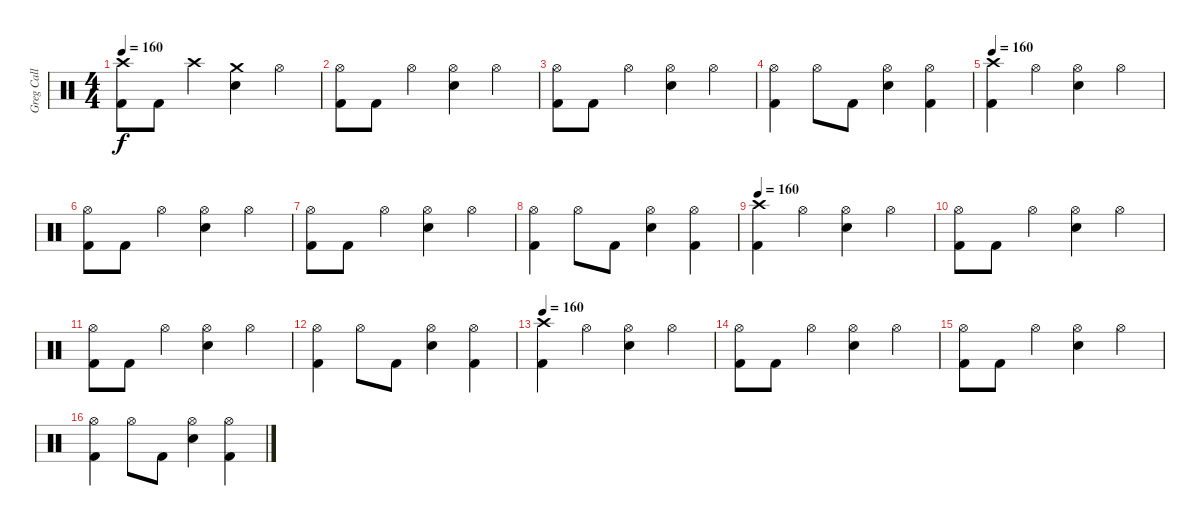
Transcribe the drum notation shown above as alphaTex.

\track ("Greg Call" "Greg Call") {instrument percussion}
\staff {score}
\articulation defaults
\ts (4 4)
\tempo 160
\clef neutral
\ks c
("Crash high (hit)" "Kick (hit) 2").8{dy f} "Kick (hit) 2".8 "Crash high (hit)".4 ("Crash medium (hit)" "Snare (hit) 2").4 "Hi-Hat (open)".4 |
("Hi-Hat (open)" "Kick (hit) 2").8 "Kick (hit) 2".8 "Hi-Hat (open)".4 ("Hi-Hat (open)" "Snare (hit) 2").4 "Hi-Hat (open)".4 |
("Hi-Hat (open)" "Kick (hit) 2").8 "Kick (hit) 2".8 "Hi-Hat (open)".4 ("Hi-Hat (open)" "Snare (hit) 2").4 "Hi-Hat (open)".4 |
("Hi-Hat (open)" "Kick (hit) 2").4 "Hi-Hat (open)".8 "Kick (hit) 2".8 ("Hi-Hat (open)" "Snare (hit) 2").4 ("Hi-Hat (open)" "Kick (hit) 2").4 |
\tempo 160
("Crash high (hit)" "Kick (hit) 2").4 "Hi-Hat (open)".4 ("Hi-Hat (open)" "Snare (hit) 2").4 "Hi-Hat (open)".4 |
("Hi-Hat (open)" "Kick (hit) 2").8 "Kick (hit) 2".8 "Hi-Hat (open)".4 ("Hi-Hat (open)" "Snare (hit) 2").4 "Hi-Hat (open)".4 |
("Hi-Hat (open)" "Kick (hit) 2").8 "Kick (hit) 2".8 "Hi-Hat (open)".4 ("Hi-Hat (open)" "Snare (hit) 2").4 "Hi-Hat (open)".4 |
("Hi-Hat (open)" "Kick (hit) 2").4 "Hi-Hat (open)".8 "Kick (hit) 2".8 ("Hi-Hat (open)" "Snare (hit) 2").4 ("Hi-Hat (open)" "Kick (hit) 2").4 |
\tempo 160
("Crash high (hit)" "Kick (hit) 2").4 "Hi-Hat (open)".4 ("Hi-Hat (open)" "Snare (hit) 2").4 "Hi-Hat (open)".4 |
("Hi-Hat (open)" "Kick (hit) 2").8 "Kick (hit) 2".8 "Hi-Hat (open)".4 ("Hi-Hat (open)" "Snare (hit) 2").4 "Hi-Hat (open)".4 |
("Hi-Hat (open)" "Kick (hit) 2").8 "Kick (hit) 2".8 "Hi-Hat (open)".4 ("Hi-Hat (open)" "Snare (hit) 2").4 "Hi-Hat (open)".4 |
("Hi-Hat (open)" "Kick (hit) 2").4 "Hi-Hat (open)".8 "Kick (hit) 2".8 ("Hi-Hat (open)" "Snare (hit) 2").4 ("Hi-Hat (open)" "Kick (hit) 2").4 |
\tempo 160
("Crash high (hit)" "Kick (hit) 2").4 "Hi-Hat (open)".4 ("Hi-Hat (open)" "Snare (hit) 2").4 "Hi-Hat (open)".4 |
("Hi-Hat (open)" "Kick (hit) 2").8 "Kick (hit) 2".8 "Hi-Hat (open)".4 ("Hi-Hat (open)" "Snare (hit) 2").4 "Hi-Hat (open)".4 |
("Hi-Hat (open)" "Kick (hit) 2").8 "Kick (hit) 2".8 "Hi-Hat (open)".4 ("Hi-Hat (open)" "Snare (hit) 2").4 "Hi-Hat (open)".4 |
("Hi-Hat (open)" "Kick (hit) 2").4 "Hi-Hat (open)".8 "Kick (hit) 2".8 ("Hi-Hat (open)" "Snare (hit) 2").4 ("Hi-Hat (open)" "Kick (hit) 2").4
